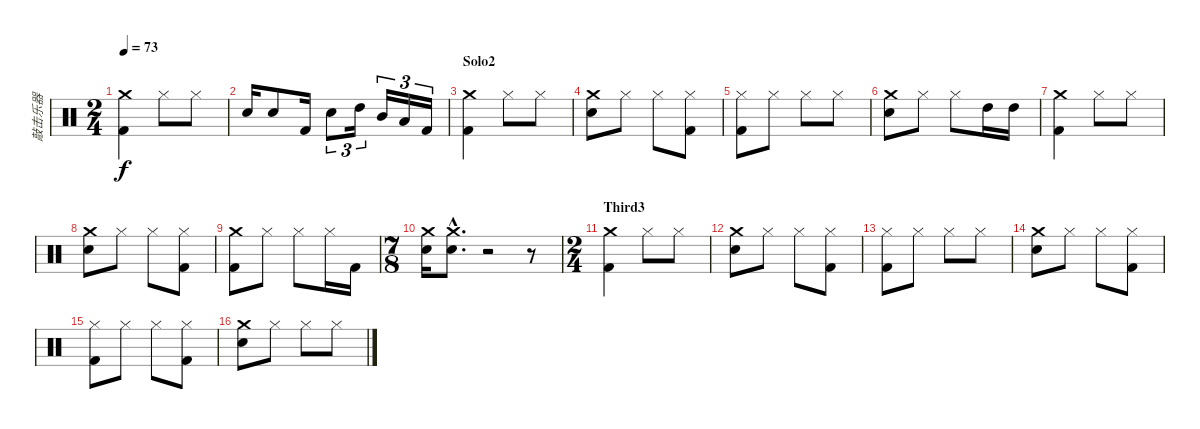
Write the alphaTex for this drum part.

\track ("敲击乐器" "敲击乐器") {instrument percussion}
\staff {score}
\articulation defaults
\ts (2 4)
\tempo 73
\clef neutral
\ks c
("Crash medium (hit)" "Kick (hit) 2").4{dy f} "Hi-Hat (closed)".8 "Hi-Hat (closed)".8 |
"Electric Snare (hit)".16 "Electric Snare (hit)".8 "Kick (hit) 2".16 "Electric Snare (hit)".8{tu (3 2)} "High Tom (hit)".16{tu (3 2)} "Mid Tom (hit)".16{tu (3 2)} "Low Tom (hit)".16{tu (3 2)} "Kick (hit) 2".16{tu (3 2)} |
\section ("" "Solo2")
("Crash medium (hit)" "Kick (hit) 2").4 "Hi-Hat (closed)".8 "Hi-Hat (closed)".8 |
("Crash medium (hit)" "Electric Snare (hit)").8 "Hi-Hat (closed)".8 "Hi-Hat (closed)".8 ("Hi-Hat (closed)" "Kick (hit) 2").8 |
("Hi-Hat (closed)" "Kick (hit) 2").8 "Hi-Hat (closed)".8 "Hi-Hat (closed)".8 "Hi-Hat (closed)".8 |
("Crash medium (hit)" "Electric Snare (hit)").8 "Hi-Hat (closed)".8 "Hi-Hat (closed)".8 "High Tom (hit)".16 "High Tom (hit)".16 |
("Crash medium (hit)" "Kick (hit) 2").4 "Hi-Hat (closed)".8 "Hi-Hat (closed)".8 |
("Crash medium (hit)" "Electric Snare (hit)").8 "Hi-Hat (closed)".8 "Hi-Hat (closed)".8 ("Hi-Hat (closed)" "Kick (hit) 2").8 |
("Crash medium (hit)" "Kick (hit) 2").8 "Hi-Hat (closed)".8 "Hi-Hat (closed)".8 "Hi-Hat (closed)".16 "Kick (hit) 2".16 |
\ts (7 8)
("Crash medium (hit)" "Electric Snare (hit)").16 ("Crash medium (hit)"{hac} "Electric Snare (hit)"{hac}).8{d} r.2 r.8 |
\ts (2 4)
\section ("" "Third3")
("Crash medium (hit)" "Kick (hit) 2").4 "Hi-Hat (closed)".8 "Hi-Hat (closed)".8 |
("Crash medium (hit)" "Electric Snare (hit)").8 "Hi-Hat (closed)".8 "Hi-Hat (closed)".8 ("Hi-Hat (closed)" "Kick (hit) 2").8 |
("Hi-Hat (closed)" "Kick (hit) 2").8 "Hi-Hat (closed)".8 "Hi-Hat (closed)".8 "Hi-Hat (closed)".8 |
("Crash medium (hit)" "Electric Snare (hit)").8 "Hi-Hat (closed)".8 "Hi-Hat (closed)".8 ("Hi-Hat (closed)" "Kick (hit) 2").8 |
("Hi-Hat (closed)" "Kick (hit) 2").8 "Hi-Hat (closed)".8 "Hi-Hat (closed)".8 ("Hi-Hat (closed)" "Kick (hit) 2").8 |
("Crash medium (hit)" "Electric Snare (hit)").8 "Hi-Hat (closed)".8 "Hi-Hat (closed)".8 "Hi-Hat (closed)".8
